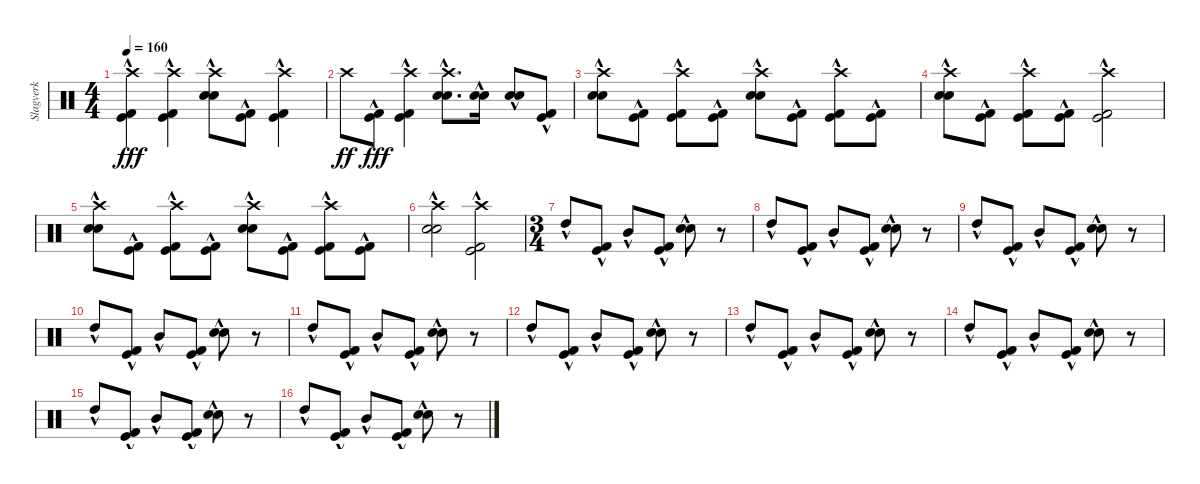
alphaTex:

\track ("Slagverk" "Slagverk") {instrument percussion}
\staff {score}
\articulation defaults
\ts (4 4)
\tempo 160
\clef neutral
\ks c
("Crash high (hit)" "Kick (hit)"{hac} "Kick (hit) 2"{hac}).4{dy fff} ("Crash high (hit)" "Kick (hit)"{hac} "Kick (hit) 2"{hac}).4 ("Crash high (hit)" "Electric Snare (hit)"{hac} "Snare (hit) 2"{hac}).8 ("Kick (hit)"{hac} "Kick (hit) 2"{hac}).8 ("Crash high (hit)" "Kick (hit)"{hac} "Kick (hit) 2"{hac}).4 |
"Crash high (hit)".8{dy ff} ("Kick (hit)"{hac} "Kick (hit) 2"{hac}).8{dy fff} ("Crash high (hit)" "Kick (hit)"{hac} "Kick (hit) 2"{hac}).4 ("Crash high (hit)" "Electric Snare (hit)"{hac} "Snare (hit) 2"{hac}).8{d} ("Electric Snare (hit)"{hac} "Snare (hit) 2"{hac}).16 ("Electric Snare (hit)"{hac} "Snare (hit) 2"{hac}).8 ("Kick (hit)"{hac} "Kick (hit) 2"{hac}).8 |
("Crash high (hit)" "Electric Snare (hit)"{hac} "Snare (hit) 2"{hac}).8 ("Kick (hit)"{hac} "Kick (hit) 2"{hac}).8 ("Crash high (hit)" "Kick (hit)"{hac} "Kick (hit) 2"{hac}).8 ("Kick (hit)"{hac} "Kick (hit) 2"{hac}).8 ("Crash high (hit)" "Electric Snare (hit)"{hac} "Snare (hit) 2"{hac}).8 ("Kick (hit)"{hac} "Kick (hit) 2"{hac}).8 ("Crash high (hit)" "Kick (hit)"{hac} "Kick (hit) 2"{hac}).8 ("Kick (hit)"{hac} "Kick (hit) 2"{hac}).8 |
("Crash high (hit)" "Electric Snare (hit)"{hac} "Snare (hit) 2"{hac}).8 ("Kick (hit)"{hac} "Kick (hit) 2"{hac}).8 ("Crash high (hit)" "Kick (hit)"{hac} "Kick (hit) 2"{hac}).8 ("Kick (hit)"{hac} "Kick (hit) 2"{hac}).8 ("Crash high (hit)" "Kick (hit)"{hac} "Kick (hit) 2"{hac}).2 |
("Crash high (hit)" "Electric Snare (hit)"{hac} "Snare (hit) 2"{hac}).8 ("Kick (hit)"{hac} "Kick (hit) 2"{hac}).8 ("Crash high (hit)" "Kick (hit)"{hac} "Kick (hit) 2"{hac}).8 ("Kick (hit)"{hac} "Kick (hit) 2"{hac}).8 ("Crash high (hit)" "Electric Snare (hit)"{hac} "Snare (hit) 2"{hac}).8 ("Kick (hit)"{hac} "Kick (hit) 2"{hac}).8 ("Crash high (hit)" "Kick (hit)"{hac} "Kick (hit) 2"{hac}).8 ("Kick (hit)"{hac} "Kick (hit) 2"{hac}).8 |
("Crash high (hit)" "Electric Snare (hit)"{hac} "Snare (hit) 2"{hac}).2 ("Crash high (hit)" "Kick (hit)"{hac} "Kick (hit) 2"{hac}).2 |
\ts (3 4)
"High Tom (hit)"{hac}.8 ("Kick (hit)"{hac} "Kick (hit) 2"{hac}).8 "Mid Tom (hit)"{hac}.8 ("Kick (hit)"{hac} "Kick (hit) 2"{hac}).8 ("Electric Snare (hit)"{hac} "Snare (hit) 2"{hac}).8 r.8 |
"High Tom (hit)"{hac}.8 ("Kick (hit)"{hac} "Kick (hit) 2"{hac}).8 "Mid Tom (hit)"{hac}.8 ("Kick (hit)"{hac} "Kick (hit) 2"{hac}).8 ("Electric Snare (hit)"{hac} "Snare (hit) 2"{hac}).8 r.8 |
"High Tom (hit)"{hac}.8 ("Kick (hit)"{hac} "Kick (hit) 2"{hac}).8 "Mid Tom (hit)"{hac}.8 ("Kick (hit)"{hac} "Kick (hit) 2"{hac}).8 ("Electric Snare (hit)"{hac} "Snare (hit) 2"{hac}).8 r.8 |
"High Tom (hit)"{hac}.8 ("Kick (hit)"{hac} "Kick (hit) 2"{hac}).8 "Mid Tom (hit)"{hac}.8 ("Kick (hit)"{hac} "Kick (hit) 2"{hac}).8 ("Electric Snare (hit)"{hac} "Snare (hit) 2"{hac}).8 r.8 |
"High Tom (hit)"{hac}.8 ("Kick (hit)"{hac} "Kick (hit) 2"{hac}).8 "Mid Tom (hit)"{hac}.8 ("Kick (hit)"{hac} "Kick (hit) 2"{hac}).8 ("Electric Snare (hit)"{hac} "Snare (hit) 2"{hac}).8 r.8 |
"High Tom (hit)"{hac}.8 ("Kick (hit)"{hac} "Kick (hit) 2"{hac}).8 "Mid Tom (hit)"{hac}.8 ("Kick (hit)"{hac} "Kick (hit) 2"{hac}).8 ("Electric Snare (hit)"{hac} "Snare (hit) 2"{hac}).8 r.8 |
"High Tom (hit)"{hac}.8 ("Kick (hit)"{hac} "Kick (hit) 2"{hac}).8 "Mid Tom (hit)"{hac}.8 ("Kick (hit)"{hac} "Kick (hit) 2"{hac}).8 ("Electric Snare (hit)"{hac} "Snare (hit) 2"{hac}).8 r.8 |
"High Tom (hit)"{hac}.8 ("Kick (hit)"{hac} "Kick (hit) 2"{hac}).8 "Mid Tom (hit)"{hac}.8 ("Kick (hit)"{hac} "Kick (hit) 2"{hac}).8 ("Electric Snare (hit)"{hac} "Snare (hit) 2"{hac}).8 r.8 |
"High Tom (hit)"{hac}.8 ("Kick (hit)"{hac} "Kick (hit) 2"{hac}).8 "Mid Tom (hit)"{hac}.8 ("Kick (hit)"{hac} "Kick (hit) 2"{hac}).8 ("Electric Snare (hit)"{hac} "Snare (hit) 2"{hac}).8 r.8 |
"High Tom (hit)"{hac}.8 ("Kick (hit)"{hac} "Kick (hit) 2"{hac}).8 "Mid Tom (hit)"{hac}.8 ("Kick (hit)"{hac} "Kick (hit) 2"{hac}).8 ("Electric Snare (hit)"{hac} "Snare (hit) 2"{hac}).8 r.8
